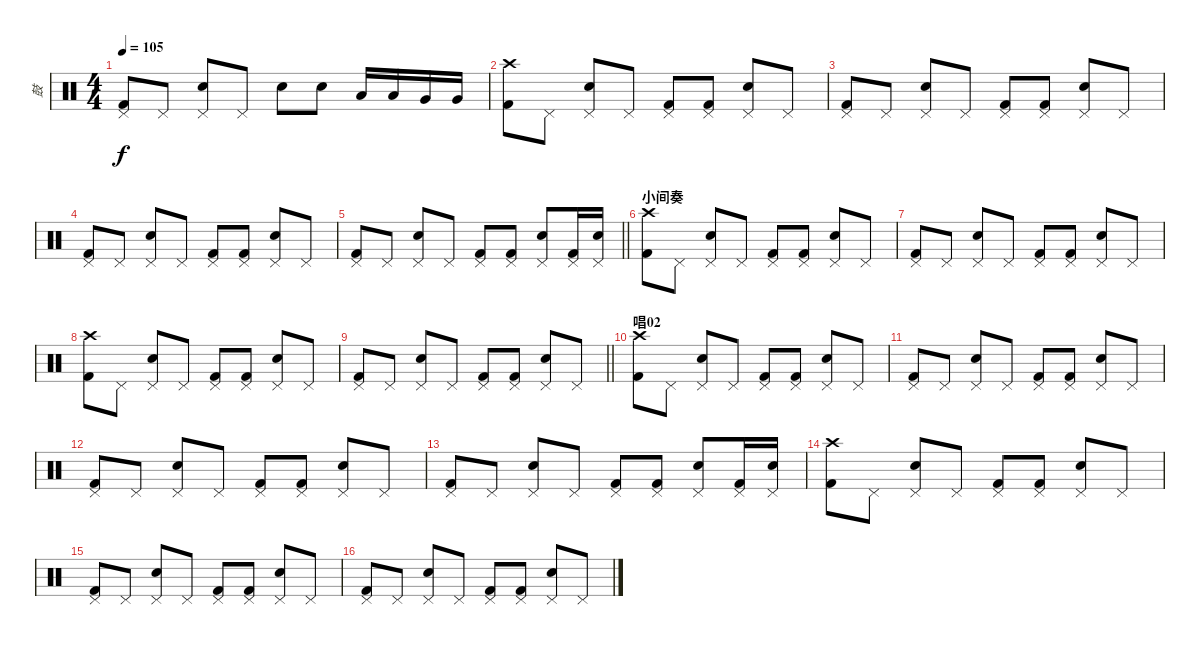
\track ("鼓" "鼓") {instrument percussion}
\staff {score}
\articulation defaults
\ts (4 4)
\tempo 105
\clef neutral
\ks c
("Pedal Hi-Hat (hit)" "Kick (hit) 2").8{dy f} "Pedal Hi-Hat (hit)".8 ("Pedal Hi-Hat (hit)" "Electric Snare (hit)").8 "Pedal Hi-Hat (hit)".8 "Electric Snare (hit)".8 "Electric Snare (hit)".8 "Low Tom (hit)".16 "Low Tom (hit)".16 "Very Low Tom (hit)".16 "Very Low Tom (hit)".16 |
("Crash high (hit)" "Kick (hit) 2").8 "Pedal Hi-Hat (hit)".8 ("Pedal Hi-Hat (hit)" "Electric Snare (hit)").8 "Pedal Hi-Hat (hit)".8 ("Pedal Hi-Hat (hit)" "Kick (hit) 2").8 ("Pedal Hi-Hat (hit)" "Kick (hit) 2").8 ("Pedal Hi-Hat (hit)" "Electric Snare (hit)").8 "Pedal Hi-Hat (hit)".8 |
("Pedal Hi-Hat (hit)" "Kick (hit) 2").8 "Pedal Hi-Hat (hit)".8 ("Pedal Hi-Hat (hit)" "Electric Snare (hit)").8 "Pedal Hi-Hat (hit)".8 ("Pedal Hi-Hat (hit)" "Kick (hit) 2").8 ("Pedal Hi-Hat (hit)" "Kick (hit) 2").8 ("Pedal Hi-Hat (hit)" "Electric Snare (hit)").8 "Pedal Hi-Hat (hit)".8 |
("Pedal Hi-Hat (hit)" "Kick (hit) 2").8 "Pedal Hi-Hat (hit)".8 ("Pedal Hi-Hat (hit)" "Electric Snare (hit)").8 "Pedal Hi-Hat (hit)".8 ("Pedal Hi-Hat (hit)" "Kick (hit) 2").8 ("Pedal Hi-Hat (hit)" "Kick (hit) 2").8 ("Pedal Hi-Hat (hit)" "Electric Snare (hit)").8 "Pedal Hi-Hat (hit)".8 |
\barLineRight lightlight
("Pedal Hi-Hat (hit)" "Kick (hit) 2").8 "Pedal Hi-Hat (hit)".8 ("Pedal Hi-Hat (hit)" "Electric Snare (hit)").8 "Pedal Hi-Hat (hit)".8 ("Pedal Hi-Hat (hit)" "Kick (hit) 2").8 ("Pedal Hi-Hat (hit)" "Kick (hit) 2").8 ("Pedal Hi-Hat (hit)" "Electric Snare (hit)").8 ("Pedal Hi-Hat (hit)" "Kick (hit) 2").16 ("Pedal Hi-Hat (hit)" "Electric Snare (hit)").16 |
\section ("" "小间奏")
("Crash high (hit)" "Kick (hit) 2").8 "Pedal Hi-Hat (hit)".8 ("Pedal Hi-Hat (hit)" "Electric Snare (hit)").8 "Pedal Hi-Hat (hit)".8 ("Pedal Hi-Hat (hit)" "Kick (hit) 2").8 ("Pedal Hi-Hat (hit)" "Kick (hit) 2").8 ("Pedal Hi-Hat (hit)" "Electric Snare (hit)").8 "Pedal Hi-Hat (hit)".8 |
("Pedal Hi-Hat (hit)" "Kick (hit) 2").8 "Pedal Hi-Hat (hit)".8 ("Pedal Hi-Hat (hit)" "Electric Snare (hit)").8 "Pedal Hi-Hat (hit)".8 ("Pedal Hi-Hat (hit)" "Kick (hit) 2").8 ("Pedal Hi-Hat (hit)" "Kick (hit) 2").8 ("Pedal Hi-Hat (hit)" "Electric Snare (hit)").8 "Pedal Hi-Hat (hit)".8 |
("Crash high (hit)" "Kick (hit) 2").8 "Pedal Hi-Hat (hit)".8 ("Pedal Hi-Hat (hit)" "Electric Snare (hit)").8 "Pedal Hi-Hat (hit)".8 ("Pedal Hi-Hat (hit)" "Kick (hit) 2").8 ("Pedal Hi-Hat (hit)" "Kick (hit) 2").8 ("Pedal Hi-Hat (hit)" "Electric Snare (hit)").8 "Pedal Hi-Hat (hit)".8 |
\barLineRight lightlight
("Pedal Hi-Hat (hit)" "Kick (hit) 2").8 "Pedal Hi-Hat (hit)".8 ("Pedal Hi-Hat (hit)" "Electric Snare (hit)").8 "Pedal Hi-Hat (hit)".8 ("Pedal Hi-Hat (hit)" "Kick (hit) 2").8 ("Pedal Hi-Hat (hit)" "Kick (hit) 2").8 ("Pedal Hi-Hat (hit)" "Electric Snare (hit)").8 "Pedal Hi-Hat (hit)".8 |
\section ("" "唱02")
("Crash high (hit)" "Kick (hit) 2").8 "Pedal Hi-Hat (hit)".8 ("Pedal Hi-Hat (hit)" "Electric Snare (hit)").8 "Pedal Hi-Hat (hit)".8 ("Pedal Hi-Hat (hit)" "Kick (hit) 2").8 ("Pedal Hi-Hat (hit)" "Kick (hit) 2").8 ("Pedal Hi-Hat (hit)" "Electric Snare (hit)").8 "Pedal Hi-Hat (hit)".8 |
("Pedal Hi-Hat (hit)" "Kick (hit) 2").8 "Pedal Hi-Hat (hit)".8 ("Pedal Hi-Hat (hit)" "Electric Snare (hit)").8 "Pedal Hi-Hat (hit)".8 ("Pedal Hi-Hat (hit)" "Kick (hit) 2").8 ("Pedal Hi-Hat (hit)" "Kick (hit) 2").8 ("Pedal Hi-Hat (hit)" "Electric Snare (hit)").8 "Pedal Hi-Hat (hit)".8 |
("Pedal Hi-Hat (hit)" "Kick (hit) 2").8 "Pedal Hi-Hat (hit)".8 ("Pedal Hi-Hat (hit)" "Electric Snare (hit)").8 "Pedal Hi-Hat (hit)".8 ("Pedal Hi-Hat (hit)" "Kick (hit) 2").8 ("Pedal Hi-Hat (hit)" "Kick (hit) 2").8 ("Pedal Hi-Hat (hit)" "Electric Snare (hit)").8 "Pedal Hi-Hat (hit)".8 |
("Pedal Hi-Hat (hit)" "Kick (hit) 2").8 "Pedal Hi-Hat (hit)".8 ("Pedal Hi-Hat (hit)" "Electric Snare (hit)").8 "Pedal Hi-Hat (hit)".8 ("Pedal Hi-Hat (hit)" "Kick (hit) 2").8 ("Pedal Hi-Hat (hit)" "Kick (hit) 2").8 ("Pedal Hi-Hat (hit)" "Electric Snare (hit)").8 ("Pedal Hi-Hat (hit)" "Kick (hit) 2").16 ("Pedal Hi-Hat (hit)" "Electric Snare (hit)").16 |
("Crash high (hit)" "Kick (hit) 2").8 "Pedal Hi-Hat (hit)".8 ("Pedal Hi-Hat (hit)" "Electric Snare (hit)").8 "Pedal Hi-Hat (hit)".8 ("Pedal Hi-Hat (hit)" "Kick (hit) 2").8 ("Pedal Hi-Hat (hit)" "Kick (hit) 2").8 ("Pedal Hi-Hat (hit)" "Electric Snare (hit)").8 "Pedal Hi-Hat (hit)".8 |
("Pedal Hi-Hat (hit)" "Kick (hit) 2").8 "Pedal Hi-Hat (hit)".8 ("Pedal Hi-Hat (hit)" "Electric Snare (hit)").8 "Pedal Hi-Hat (hit)".8 ("Pedal Hi-Hat (hit)" "Kick (hit) 2").8 ("Pedal Hi-Hat (hit)" "Kick (hit) 2").8 ("Pedal Hi-Hat (hit)" "Electric Snare (hit)").8 "Pedal Hi-Hat (hit)".8 |
("Pedal Hi-Hat (hit)" "Kick (hit) 2").8 "Pedal Hi-Hat (hit)".8 ("Pedal Hi-Hat (hit)" "Electric Snare (hit)").8 "Pedal Hi-Hat (hit)".8 ("Pedal Hi-Hat (hit)" "Kick (hit) 2").8 ("Pedal Hi-Hat (hit)" "Kick (hit) 2").8 ("Pedal Hi-Hat (hit)" "Electric Snare (hit)").8 "Pedal Hi-Hat (hit)".8
